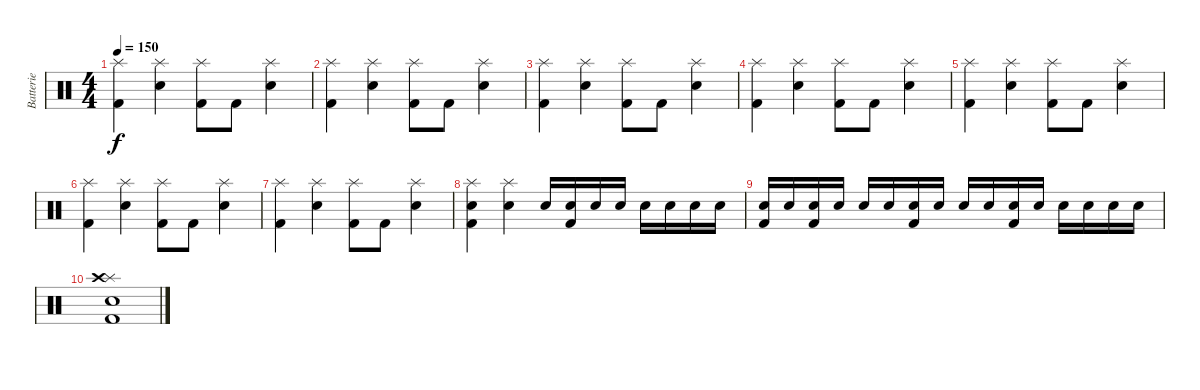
\track ("Batterie" "Batterie") {instrument percussion}
\staff {score}
\articulation defaults
\ts (4 4)
\tempo 150
\clef neutral
\ks c
("Splash (hit)" "Kick (hit) 2").4{dy f} ("Splash (hit)" "Electric Snare (hit)").4 ("Splash (hit)" "Kick (hit) 2").8 "Kick (hit) 2".8 ("Splash (hit)" "Electric Snare (hit)").4 |
("Splash (hit)" "Kick (hit) 2").4 ("Splash (hit)" "Electric Snare (hit)").4 ("Splash (hit)" "Kick (hit) 2").8 "Kick (hit) 2".8 ("Splash (hit)" "Electric Snare (hit)").4 |
("Splash (hit)" "Kick (hit) 2").4 ("Splash (hit)" "Electric Snare (hit)").4 ("Splash (hit)" "Kick (hit) 2").8 "Kick (hit) 2".8 ("Splash (hit)" "Electric Snare (hit)").4 |
("Splash (hit)" "Kick (hit) 2").4 ("Splash (hit)" "Electric Snare (hit)").4 ("Splash (hit)" "Kick (hit) 2").8 "Kick (hit) 2".8 ("Splash (hit)" "Electric Snare (hit)").4 |
("Splash (hit)" "Kick (hit) 2").4 ("Splash (hit)" "Electric Snare (hit)").4 ("Splash (hit)" "Kick (hit) 2").8 "Kick (hit) 2".8 ("Splash (hit)" "Electric Snare (hit)").4 |
("Splash (hit)" "Kick (hit) 2").4 ("Splash (hit)" "Electric Snare (hit)").4 ("Splash (hit)" "Kick (hit) 2").8 "Kick (hit) 2".8 ("Splash (hit)" "Electric Snare (hit)").4 |
("Splash (hit)" "Kick (hit) 2").4 ("Splash (hit)" "Electric Snare (hit)").4 ("Splash (hit)" "Kick (hit) 2").8 "Kick (hit) 2".8 ("Splash (hit)" "Electric Snare (hit)").4 |
("Splash (hit)" "Electric Snare (hit)" "Kick (hit) 2").4 ("Splash (hit)" "Electric Snare (hit)").4 "Electric Snare (hit)".16 ("Electric Snare (hit)" "Kick (hit) 2").16 "Electric Snare (hit)".16 "Electric Snare (hit)".16 "Electric Snare (hit)".16 "Electric Snare (hit)".16 "Electric Snare (hit)".16 "Electric Snare (hit)".16 |
("Electric Snare (hit)" "Kick (hit) 2").16 "Electric Snare (hit)".16 ("Electric Snare (hit)" "Kick (hit) 2").16 "Electric Snare (hit)".16 "Electric Snare (hit)".16 "Electric Snare (hit)".16 ("Electric Snare (hit)" "Kick (hit) 2").16 "Electric Snare (hit)".16 "Electric Snare (hit)".16 "Electric Snare (hit)".16 ("Electric Snare (hit)" "Kick (hit) 2").16 "Electric Snare (hit)".16 "Electric Snare (hit)".16 "Electric Snare (hit)".16 "Electric Snare (hit)".16 "Electric Snare (hit)".16 |
("Splash (hit)" "Crash high (hit)" "Electric Snare (hit)" "Kick (hit) 2").1
